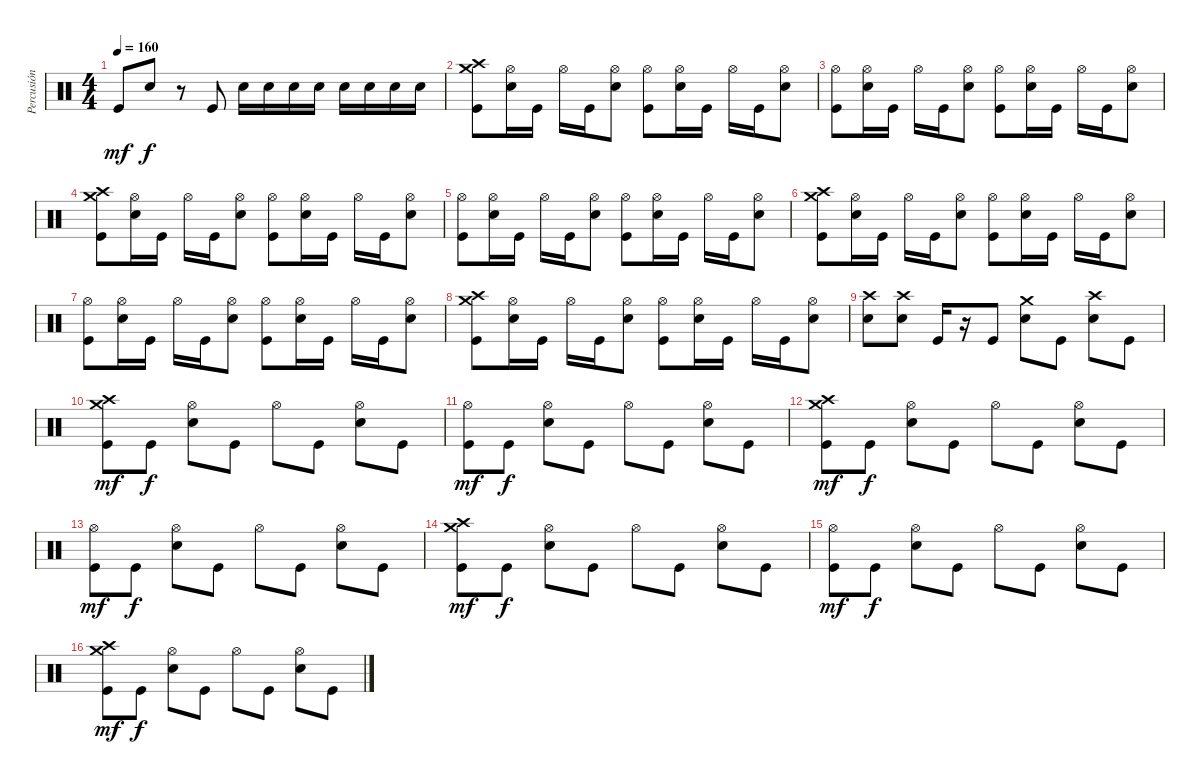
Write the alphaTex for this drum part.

\track ("Percusión" "Percusión") {instrument percussion}
\staff {score}
\articulation defaults
\ts (4 4)
\tempo 160
\clef neutral
\ks c "Kick (hit)".8{dy mf} "Electric Snare (hit)".8{dy f}
r.8 "Kick (hit)".8 "Electric Snare (hit)".16 "Electric Snare (hit)".16 "Electric Snare (hit)".16 "Electric Snare (hit)".16 "Electric Snare (hit)".16 "Electric Snare (hit)".16 "Electric Snare (hit)".16 "Electric Snare (hit)".16 |
("Crash medium (hit)" "Crash high (hit)" "Kick (hit)").8 ("Hi-Hat (open)" "Electric Snare (hit)").16 "Kick (hit)".16 "Hi-Hat (open)".16 "Kick (hit)".16 ("Hi-Hat (open)" "Electric Snare (hit)").8 ("Hi-Hat (open)" "Kick (hit)").8 ("Hi-Hat (open)" "Electric Snare (hit)").16 "Kick (hit)".16 "Hi-Hat (open)".16 "Kick (hit)".16 ("Hi-Hat (open)" "Electric Snare (hit)").8 |
("Hi-Hat (open)" "Kick (hit)").8 ("Hi-Hat (open)" "Electric Snare (hit)").16 "Kick (hit)".16 "Hi-Hat (open)".16 "Kick (hit)".16 ("Hi-Hat (open)" "Electric Snare (hit)").8 ("Hi-Hat (open)" "Kick (hit)").8 ("Hi-Hat (open)" "Electric Snare (hit)").16 "Kick (hit)".16 "Hi-Hat (open)".16 "Kick (hit)".16 ("Hi-Hat (open)" "Electric Snare (hit)").8 |
("Crash medium (hit)" "Crash high (hit)" "Kick (hit)").8 ("Hi-Hat (open)" "Electric Snare (hit)").16 "Kick (hit)".16 "Hi-Hat (open)".16 "Kick (hit)".16 ("Hi-Hat (open)" "Electric Snare (hit)").8 ("Hi-Hat (open)" "Kick (hit)").8 ("Hi-Hat (open)" "Electric Snare (hit)").16 "Kick (hit)".16 "Hi-Hat (open)".16 "Kick (hit)".16 ("Hi-Hat (open)" "Electric Snare (hit)").8 |
("Hi-Hat (open)" "Kick (hit)").8 ("Hi-Hat (open)" "Electric Snare (hit)").16 "Kick (hit)".16 "Hi-Hat (open)".16 "Kick (hit)".16 ("Hi-Hat (open)" "Electric Snare (hit)").8 ("Hi-Hat (open)" "Kick (hit)").8 ("Hi-Hat (open)" "Electric Snare (hit)").16 "Kick (hit)".16 "Hi-Hat (open)".16 "Kick (hit)".16 ("Hi-Hat (open)" "Electric Snare (hit)").8 |
("Crash medium (hit)" "Crash high (hit)" "Kick (hit)").8 ("Hi-Hat (open)" "Electric Snare (hit)").16 "Kick (hit)".16 "Hi-Hat (open)".16 "Kick (hit)".16 ("Hi-Hat (open)" "Electric Snare (hit)").8 ("Hi-Hat (open)" "Kick (hit)").8 ("Hi-Hat (open)" "Electric Snare (hit)").16 "Kick (hit)".16 "Hi-Hat (open)".16 "Kick (hit)".16 ("Hi-Hat (open)" "Electric Snare (hit)").8 |
("Hi-Hat (open)" "Kick (hit)").8 ("Hi-Hat (open)" "Electric Snare (hit)").16 "Kick (hit)".16 "Hi-Hat (open)".16 "Kick (hit)".16 ("Hi-Hat (open)" "Electric Snare (hit)").8 ("Hi-Hat (open)" "Kick (hit)").8 ("Hi-Hat (open)" "Electric Snare (hit)").16 "Kick (hit)".16 "Hi-Hat (open)".16 "Kick (hit)".16 ("Hi-Hat (open)" "Electric Snare (hit)").8 |
("Crash medium (hit)" "Crash high (hit)" "Kick (hit)").8 ("Hi-Hat (open)" "Electric Snare (hit)").16 "Kick (hit)".16 "Hi-Hat (open)".16 "Kick (hit)".16 ("Hi-Hat (open)" "Electric Snare (hit)").8 ("Hi-Hat (open)" "Kick (hit)").8 ("Hi-Hat (open)" "Electric Snare (hit)").16 "Kick (hit)".16 "Hi-Hat (open)".16 "Kick (hit)".16 ("Hi-Hat (open)" "Electric Snare (hit)").8 |
("Crash high (hit)" "Electric Snare (hit)").8 ("Crash high (hit)" "Electric Snare (hit)").8 "Kick (hit)".16 r.16 "Kick (hit)".8 ("Crash medium (hit)" "Electric Snare (hit)").8 "Kick (hit)".8 ("Crash high (hit)" "Electric Snare (hit)").8 "Kick (hit)".8 |
("Crash medium (hit)" "Crash high (hit)" "Kick (hit)").8{dy mf} "Kick (hit)".8{dy f} ("Hi-Hat (open)" "Electric Snare (hit)").8 "Kick (hit)".8 "Hi-Hat (open)".8 "Kick (hit)".8 ("Hi-Hat (open)" "Electric Snare (hit)").8 "Kick (hit)".8 |
("Hi-Hat (open)" "Kick (hit)").8{dy mf} "Kick (hit)".8{dy f} ("Hi-Hat (open)" "Electric Snare (hit)").8 "Kick (hit)".8 "Hi-Hat (open)".8 "Kick (hit)".8 ("Hi-Hat (open)" "Electric Snare (hit)").8 "Kick (hit)".8 |
("Crash medium (hit)" "Crash high (hit)" "Kick (hit)").8{dy mf} "Kick (hit)".8{dy f} ("Hi-Hat (open)" "Electric Snare (hit)").8 "Kick (hit)".8 "Hi-Hat (open)".8 "Kick (hit)".8 ("Hi-Hat (open)" "Electric Snare (hit)").8 "Kick (hit)".8 |
("Hi-Hat (open)" "Kick (hit)").8{dy mf} "Kick (hit)".8{dy f} ("Hi-Hat (open)" "Electric Snare (hit)").8 "Kick (hit)".8 "Hi-Hat (open)".8 "Kick (hit)".8 ("Hi-Hat (open)" "Electric Snare (hit)").8 "Kick (hit)".8 |
("Crash medium (hit)" "Crash high (hit)" "Kick (hit)").8{dy mf} "Kick (hit)".8{dy f} ("Hi-Hat (open)" "Electric Snare (hit)").8 "Kick (hit)".8 "Hi-Hat (open)".8 "Kick (hit)".8 ("Hi-Hat (open)" "Electric Snare (hit)").8 "Kick (hit)".8 |
("Hi-Hat (open)" "Kick (hit)").8{dy mf} "Kick (hit)".8{dy f} ("Hi-Hat (open)" "Electric Snare (hit)").8 "Kick (hit)".8 "Hi-Hat (open)".8 "Kick (hit)".8 ("Hi-Hat (open)" "Electric Snare (hit)").8 "Kick (hit)".8 |
("Crash medium (hit)" "Crash high (hit)" "Kick (hit)").8{dy mf} "Kick (hit)".8{dy f} ("Hi-Hat (open)" "Electric Snare (hit)").8 "Kick (hit)".8 "Hi-Hat (open)".8 "Kick (hit)".8 ("Hi-Hat (open)" "Electric Snare (hit)").8 "Kick (hit)".8
